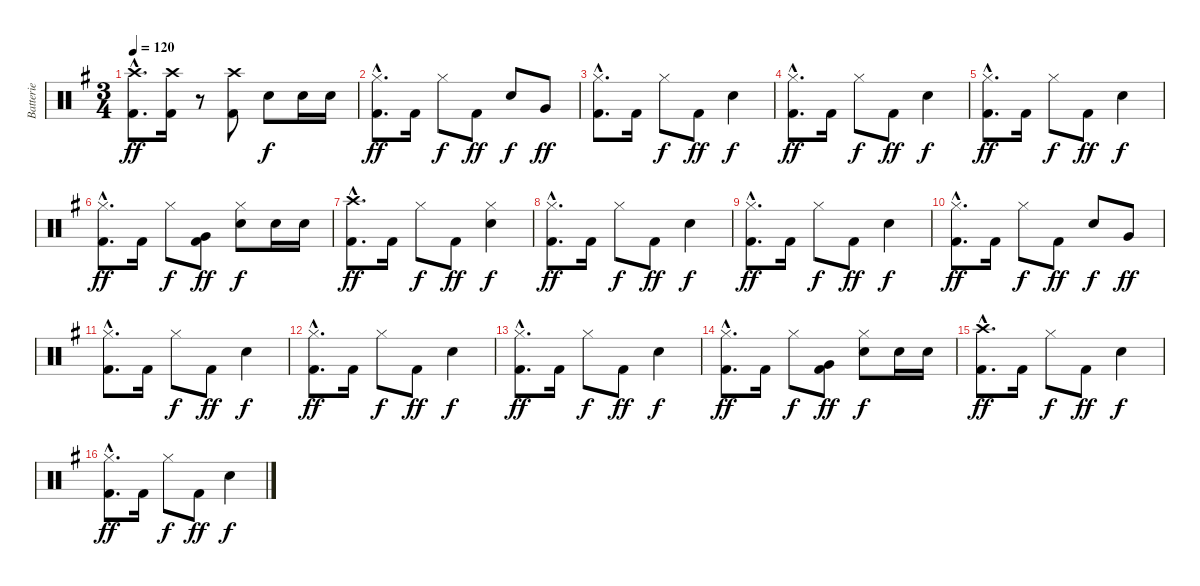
\track ("Batterie" "Batterie") {instrument percussion}
\staff {score}
\articulation defaults
\ts (3 4)
\tempo 120
\clef neutral
\ks g
("Crash high (hit)"{hac} "Kick (hit) 2"{hac}).8{d dy ff} ("Crash high (hit)" "Kick (hit) 2").16 r.8 ("Crash high (hit)" "Kick (hit) 2").8 "Snare (hit) 2".8{dy f} "Snare (hit) 2".16 "Snare (hit) 2".16 |
("Hi-Hat (closed)"{hac} "Kick (hit) 2"{hac}).8{d dy ff} "Kick (hit) 2".16 "Hi-Hat (closed)".8{dy f} "Kick (hit) 2".8{dy ff} "Snare (hit) 2".8{dy f} "Very Low Tom (hit)".8{dy ff} |
("Hi-Hat (closed)"{hac} "Kick (hit) 2"{hac}).8{d} "Kick (hit) 2".16 "Hi-Hat (closed)".8{dy f} "Kick (hit) 2".8{dy ff} "Snare (hit) 2".4{dy f} |
("Hi-Hat (closed)"{hac} "Kick (hit) 2"{hac}).8{d dy ff} "Kick (hit) 2".16 "Hi-Hat (closed)".8{dy f} "Kick (hit) 2".8{dy ff} "Snare (hit) 2".4{dy f} |
("Hi-Hat (closed)"{hac} "Kick (hit) 2"{hac}).8{d dy ff} "Kick (hit) 2".16 "Hi-Hat (closed)".8{dy f} "Kick (hit) 2".8{dy ff} "Snare (hit) 2".4{dy f} |
("Hi-Hat (closed)"{hac} "Kick (hit) 2"{hac}).8{d dy ff} "Kick (hit) 2".16 "Hi-Hat (closed)".8{dy f} ("Very Low Tom (hit)" "Kick (hit) 2").8{dy ff} ("Hi-Hat (closed)" "Snare (hit) 2").8{dy f} "Snare (hit) 2".16 "Snare (hit) 2".16 |
("Crash high (hit)"{hac} "Kick (hit) 2"{hac}).8{d dy ff} "Kick (hit) 2".16 "Hi-Hat (closed)".8{dy f} "Kick (hit) 2".8{dy ff} ("Hi-Hat (closed)" "Snare (hit) 2").4{dy f} |
("Hi-Hat (closed)"{hac} "Kick (hit) 2"{hac}).8{d dy ff} "Kick (hit) 2".16 "Hi-Hat (closed)".8{dy f} "Kick (hit) 2".8{dy ff} "Snare (hit) 2".4{dy f} |
("Hi-Hat (closed)"{hac} "Kick (hit) 2"{hac}).8{d dy ff} "Kick (hit) 2".16 "Hi-Hat (closed)".8{dy f} "Kick (hit) 2".8{dy ff} "Snare (hit) 2".4{dy f} |
("Hi-Hat (closed)"{hac} "Kick (hit) 2"{hac}).8{d dy ff} "Kick (hit) 2".16 "Hi-Hat (closed)".8{dy f} "Kick (hit) 2".8{dy ff} "Snare (hit) 2".8{dy f} "Very Low Tom (hit)".8{dy ff} |
("Hi-Hat (closed)"{hac} "Kick (hit) 2"{hac}).8{d} "Kick (hit) 2".16 "Hi-Hat (closed)".8{dy f} "Kick (hit) 2".8{dy ff} "Snare (hit) 2".4{dy f} |
("Hi-Hat (closed)"{hac} "Kick (hit) 2"{hac}).8{d dy ff} "Kick (hit) 2".16 "Hi-Hat (closed)".8{dy f} "Kick (hit) 2".8{dy ff} "Snare (hit) 2".4{dy f} |
("Hi-Hat (closed)"{hac} "Kick (hit) 2"{hac}).8{d dy ff} "Kick (hit) 2".16 "Hi-Hat (closed)".8{dy f} "Kick (hit) 2".8{dy ff} "Snare (hit) 2".4{dy f} |
("Hi-Hat (closed)"{hac} "Kick (hit) 2"{hac}).8{d dy ff} "Kick (hit) 2".16 "Hi-Hat (closed)".8{dy f} ("Very Low Tom (hit)" "Kick (hit) 2").8{dy ff} ("Hi-Hat (closed)" "Snare (hit) 2").8{dy f} "Snare (hit) 2".16 "Snare (hit) 2".16 |
("Crash high (hit)"{hac} "Kick (hit) 2"{hac}).8{d dy ff} "Kick (hit) 2".16 "Hi-Hat (closed)".8{dy f} "Kick (hit) 2".8{dy ff} "Snare (hit) 2".4{dy f} |
("Hi-Hat (closed)"{hac} "Kick (hit) 2"{hac}).8{d dy ff} "Kick (hit) 2".16 "Hi-Hat (closed)".8{dy f} "Kick (hit) 2".8{dy ff} "Snare (hit) 2".4{dy f}
